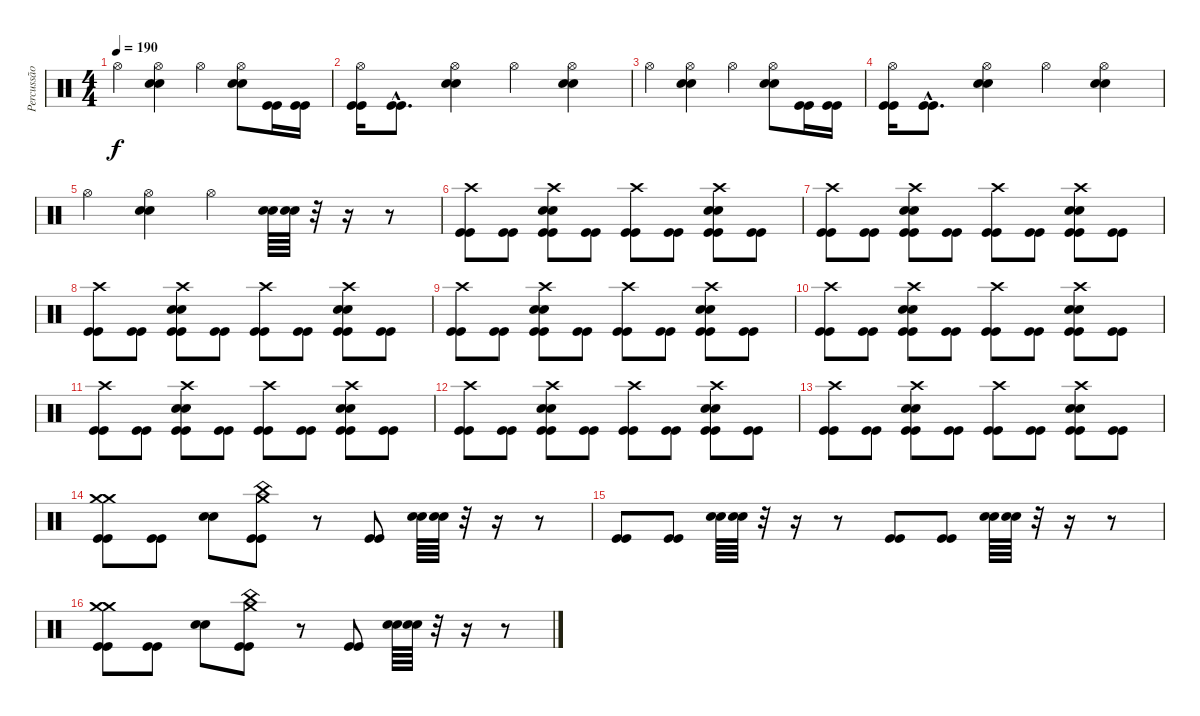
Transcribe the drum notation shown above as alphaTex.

\track ("Percussão" "Percussão") {instrument percussion}
\staff {score}
\articulation defaults
\ts (4 4)
\tempo 190
\clef neutral
\ks c "Hi-Hat (open)".4{dy f}
("Hi-Hat (open)" "Snare (hit) 2" "Snare (hit) 2").4 "Hi-Hat (open)".4 ("Hi-Hat (open)" "Snare (hit) 2" "Snare (hit) 2").8 ("Kick (hit)" "Kick (hit)").16 ("Kick (hit)" "Kick (hit)").16 |
("Hi-Hat (open)" "Kick (hit)" "Kick (hit)").16 ("Kick (hit)"{hac} "Kick (hit)"{hac}).8{d} ("Hi-Hat (open)" "Snare (hit) 2" "Snare (hit) 2").4 "Hi-Hat (open)".4 ("Hi-Hat (open)" "Snare (hit) 2" "Snare (hit) 2").4 |
"Hi-Hat (open)".4 ("Hi-Hat (open)" "Snare (hit) 2" "Snare (hit) 2").4 "Hi-Hat (open)".4 ("Hi-Hat (open)" "Snare (hit) 2" "Snare (hit) 2").8 ("Kick (hit)" "Kick (hit)").16 ("Kick (hit)" "Kick (hit)").16 |
("Hi-Hat (open)" "Kick (hit)" "Kick (hit)").16 ("Kick (hit)"{hac} "Kick (hit)"{hac}).8{d} ("Hi-Hat (open)" "Snare (hit) 2" "Snare (hit) 2").4 "Hi-Hat (open)".4 ("Hi-Hat (open)" "Snare (hit) 2" "Snare (hit) 2").4 |
"Hi-Hat (open)".4 ("Hi-Hat (open)" "Snare (hit) 2" "Snare (hit) 2").4 "Hi-Hat (open)".4 ("Snare (hit) 2" "Snare (hit) 2").64 ("Snare (hit) 2" "Snare (hit) 2").64 r.32 r.16 r.8 |
("Crash high (hit)" "Kick (hit)" "Kick (hit)").8 ("Kick (hit)" "Kick (hit)").8 ("Crash high (hit)" "Snare (hit) 2" "Snare (hit) 2" "Kick (hit)" "Kick (hit)").8 ("Kick (hit)" "Kick (hit)").8 ("Crash high (hit)" "Kick (hit)" "Kick (hit)").8 ("Kick (hit)" "Kick (hit)").8 ("Crash high (hit)" "Snare (hit) 2" "Snare (hit) 2" "Kick (hit)" "Kick (hit)").8 ("Kick (hit)" "Kick (hit)").8 |
("Crash high (hit)" "Kick (hit)" "Kick (hit)").8 ("Kick (hit)" "Kick (hit)").8 ("Crash high (hit)" "Snare (hit) 2" "Snare (hit) 2" "Kick (hit)" "Kick (hit)").8 ("Kick (hit)" "Kick (hit)").8 ("Crash high (hit)" "Kick (hit)" "Kick (hit)").8 ("Kick (hit)" "Kick (hit)").8 ("Crash high (hit)" "Snare (hit) 2" "Snare (hit) 2" "Kick (hit)" "Kick (hit)").8 ("Kick (hit)" "Kick (hit)").8 |
("Crash high (hit)" "Kick (hit)" "Kick (hit)").8 ("Kick (hit)" "Kick (hit)").8 ("Crash high (hit)" "Snare (hit) 2" "Snare (hit) 2" "Kick (hit)" "Kick (hit)").8 ("Kick (hit)" "Kick (hit)").8 ("Crash high (hit)" "Kick (hit)" "Kick (hit)").8 ("Kick (hit)" "Kick (hit)").8 ("Crash high (hit)" "Snare (hit) 2" "Snare (hit) 2" "Kick (hit)" "Kick (hit)").8 ("Kick (hit)" "Kick (hit)").8 |
("Crash high (hit)" "Kick (hit)" "Kick (hit)").8 ("Kick (hit)" "Kick (hit)").8 ("Crash high (hit)" "Snare (hit) 2" "Snare (hit) 2" "Kick (hit)" "Kick (hit)").8 ("Kick (hit)" "Kick (hit)").8 ("Crash high (hit)" "Kick (hit)" "Kick (hit)").8 ("Kick (hit)" "Kick (hit)").8 ("Crash high (hit)" "Snare (hit) 2" "Snare (hit) 2" "Kick (hit)" "Kick (hit)").8 ("Kick (hit)" "Kick (hit)").8 |
("Crash high (hit)" "Kick (hit)" "Kick (hit)").8 ("Kick (hit)" "Kick (hit)").8 ("Crash high (hit)" "Snare (hit) 2" "Snare (hit) 2" "Kick (hit)" "Kick (hit)").8 ("Kick (hit)" "Kick (hit)").8 ("Crash high (hit)" "Kick (hit)" "Kick (hit)").8 ("Kick (hit)" "Kick (hit)").8 ("Crash high (hit)" "Snare (hit) 2" "Snare (hit) 2" "Kick (hit)" "Kick (hit)").8 ("Kick (hit)" "Kick (hit)").8 |
("Crash high (hit)" "Kick (hit)" "Kick (hit)").8 ("Kick (hit)" "Kick (hit)").8 ("Crash high (hit)" "Snare (hit) 2" "Snare (hit) 2" "Kick (hit)" "Kick (hit)").8 ("Kick (hit)" "Kick (hit)").8 ("Crash high (hit)" "Kick (hit)" "Kick (hit)").8 ("Kick (hit)" "Kick (hit)").8 ("Crash high (hit)" "Snare (hit) 2" "Snare (hit) 2" "Kick (hit)" "Kick (hit)").8 ("Kick (hit)" "Kick (hit)").8 |
("Crash high (hit)" "Kick (hit)" "Kick (hit)").8 ("Kick (hit)" "Kick (hit)").8 ("Crash high (hit)" "Snare (hit) 2" "Snare (hit) 2" "Kick (hit)" "Kick (hit)").8 ("Kick (hit)" "Kick (hit)").8 ("Crash high (hit)" "Kick (hit)" "Kick (hit)").8 ("Kick (hit)" "Kick (hit)").8 ("Crash high (hit)" "Snare (hit) 2" "Snare (hit) 2" "Kick (hit)" "Kick (hit)").8 ("Kick (hit)" "Kick (hit)").8 |
("Crash high (hit)" "Kick (hit)" "Kick (hit)").8 ("Kick (hit)" "Kick (hit)").8 ("Crash high (hit)" "Snare (hit) 2" "Snare (hit) 2" "Kick (hit)" "Kick (hit)").8 ("Kick (hit)" "Kick (hit)").8 ("Crash high (hit)" "Kick (hit)" "Kick (hit)").8 ("Kick (hit)" "Kick (hit)").8 ("Crash high (hit)" "Snare (hit) 2" "Snare (hit) 2" "Kick (hit)" "Kick (hit)").8 ("Kick (hit)" "Kick (hit)").8 |
("Crash medium (hit)" "Crash medium (hit)" "Kick (hit)" "Kick (hit)").8 ("Kick (hit)" "Kick (hit)").8 ("Snare (hit) 2" "Snare (hit) 2").8 ("Crash medium (hit)" "China (hit)" "Kick (hit)" "Kick (hit)").8 r.8 ("Kick (hit)" "Kick (hit)").8 ("Snare (hit) 2" "Snare (hit) 2").64 ("Snare (hit) 2" "Snare (hit) 2").64 r.32 r.16 r.8 |
("Kick (hit)" "Kick (hit)").8 ("Kick (hit)" "Kick (hit)").8 ("Snare (hit) 2" "Snare (hit) 2").64 ("Snare (hit) 2" "Snare (hit) 2").64 r.32 r.16 r.8 ("Kick (hit)" "Kick (hit)").8 ("Kick (hit)" "Kick (hit)").8 ("Snare (hit) 2" "Snare (hit) 2").64 ("Snare (hit) 2" "Snare (hit) 2").64 r.32 r.16 r.8 |
("Crash medium (hit)" "Crash medium (hit)" "Kick (hit)" "Kick (hit)").8 ("Kick (hit)" "Kick (hit)").8 ("Snare (hit) 2" "Snare (hit) 2").8 ("Crash medium (hit)" "China (hit)" "Kick (hit)" "Kick (hit)").8 r.8 ("Kick (hit)" "Kick (hit)").8 ("Snare (hit) 2" "Snare (hit) 2").64 ("Snare (hit) 2" "Snare (hit) 2").64 r.32 r.16 r.8
